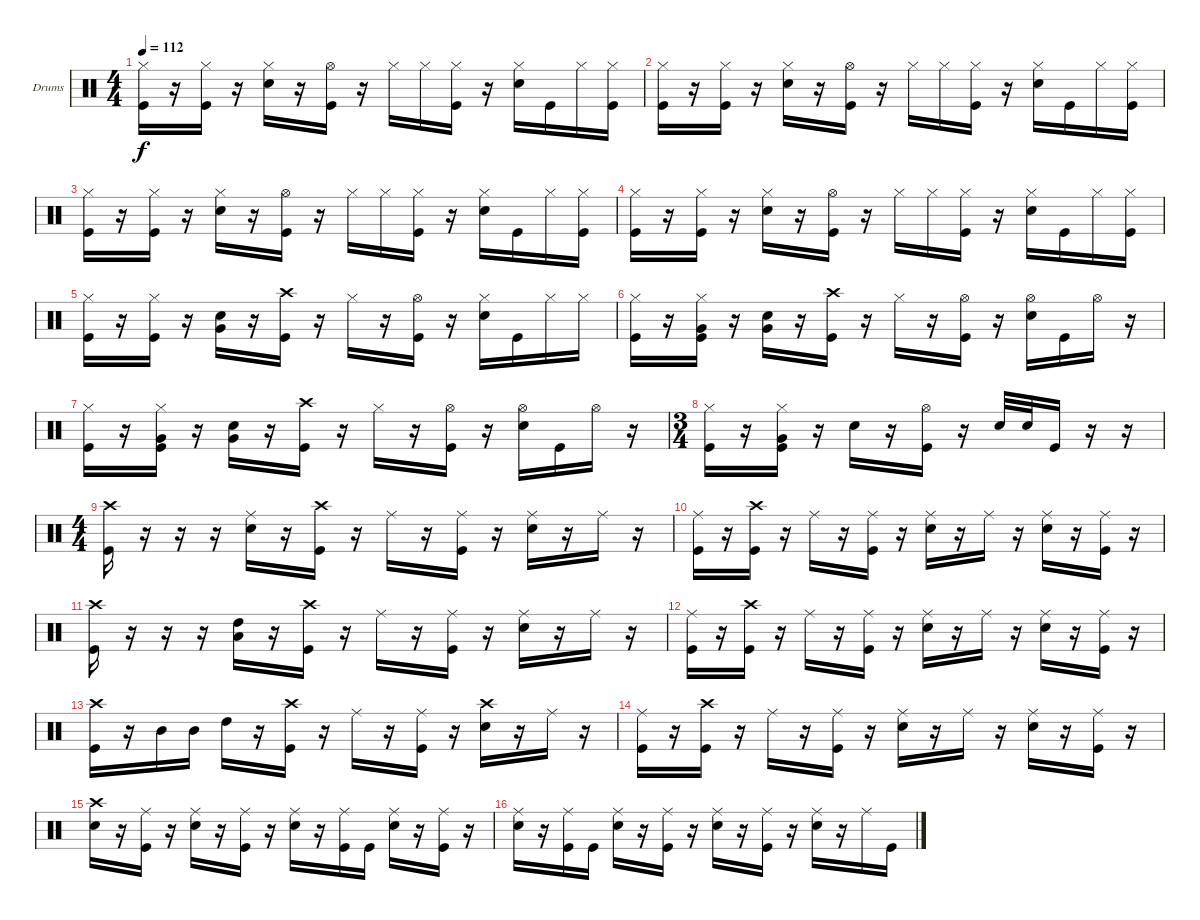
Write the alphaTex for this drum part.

\bracketExtendMode groupsimilarinstruments
\firstSystemTrackNameOrientation horizontal
\otherSystemsTrackNameOrientation horizontal
\track ("Drumkit" "Drums") {instrument percussion}
\staff {score}
\articulation defaults
\ts (4 4)
\tempo 112
\clef neutral
\ks c
("Hi-Hat (closed)" "Kick (hit)").16{dy f} r.16 ("Hi-Hat (closed)" "Kick (hit)").16 r.16 ("Hi-Hat (closed)" "Snare (hit) 2").16 r.16 ("Hi-Hat (open)" "Kick (hit)").16 r.16 "Hi-Hat (closed)".16 "Hi-Hat (closed)".16 ("Hi-Hat (closed)" "Kick (hit)").16 r.16 ("Hi-Hat (closed)" "Snare (hit) 2").16 "Kick (hit)".16 "Hi-Hat (closed)".16 ("Hi-Hat (closed)" "Kick (hit)").16 |
("Hi-Hat (closed)" "Kick (hit)").16 r.16 ("Hi-Hat (closed)" "Kick (hit)").16 r.16 ("Hi-Hat (closed)" "Snare (hit) 2").16 r.16 ("Hi-Hat (open)" "Kick (hit)").16 r.16 "Hi-Hat (closed)".16 "Hi-Hat (closed)".16 ("Hi-Hat (closed)" "Kick (hit)").16 r.16 ("Hi-Hat (closed)" "Snare (hit) 2").16 "Kick (hit)".16 "Hi-Hat (closed)".16 ("Hi-Hat (closed)" "Kick (hit)").16 |
("Hi-Hat (closed)" "Kick (hit)").16 r.16 ("Hi-Hat (closed)" "Kick (hit)").16 r.16 ("Hi-Hat (closed)" "Snare (hit) 2").16 r.16 ("Hi-Hat (open)" "Kick (hit)").16 r.16 "Hi-Hat (closed)".16 "Hi-Hat (closed)".16 ("Hi-Hat (closed)" "Kick (hit)").16 r.16 ("Hi-Hat (closed)" "Snare (hit) 2").16 "Kick (hit)".16 "Hi-Hat (closed)".16 ("Hi-Hat (closed)" "Kick (hit)").16 |
("Hi-Hat (closed)" "Kick (hit)").16 r.16 ("Hi-Hat (closed)" "Kick (hit)").16 r.16 ("Hi-Hat (closed)" "Snare (hit) 2").16 r.16 ("Hi-Hat (open)" "Kick (hit)").16 r.16 "Hi-Hat (closed)".16 "Hi-Hat (closed)".16 ("Hi-Hat (closed)" "Kick (hit)").16 r.16 ("Hi-Hat (closed)" "Snare (hit) 2").16 "Kick (hit)".16 "Hi-Hat (closed)".16 ("Hi-Hat (closed)" "Kick (hit)").16 |
("Hi-Hat (closed)" "Kick (hit)").16 r.16 ("Hi-Hat (closed)" "Kick (hit)").16 r.16 ("Snare (hit) 2" "Very Low Tom (hit)").16 r.16 ("Crash high (hit)" "Kick (hit)").16 r.16 "Hi-Hat (closed)".16 r.16 ("Hi-Hat (open)" "Kick (hit)").16 r.16 ("Hi-Hat (closed)" "Snare (hit) 2").16 "Kick (hit)".16 "Hi-Hat (closed)".16 "Hi-Hat (closed)".16 |
("Hi-Hat (closed)" "Kick (hit)").16 r.16 ("Hi-Hat (closed)" "Very Low Tom (hit)" "Kick (hit)").16 r.16 ("Snare (hit) 2" "Very Low Tom (hit)").16 r.16 ("Crash high (hit)" "Kick (hit)").16 r.16 "Hi-Hat (closed)".16 r.16 ("Hi-Hat (open)" "Kick (hit)").16 r.16 ("Hi-Hat (open)" "Snare (hit) 2").16 "Kick (hit)".16 "Hi-Hat (open)".16 r.16 |
("Hi-Hat (closed)" "Kick (hit)").16 r.16 ("Hi-Hat (closed)" "Very Low Tom (hit)" "Kick (hit)").16 r.16 ("Snare (hit) 2" "Very Low Tom (hit)").16 r.16 ("Crash high (hit)" "Kick (hit)").16 r.16 "Hi-Hat (closed)".16 r.16 ("Hi-Hat (open)" "Kick (hit)").16 r.16 ("Hi-Hat (open)" "Snare (hit) 2").16 "Kick (hit)".16 "Hi-Hat (open)".16 r.16 |
\ts (3 4)
\beaming (8 2 2 2 2)
("Hi-Hat (closed)" "Kick (hit)").16 r.16 ("Hi-Hat (closed)" "Very Low Tom (hit)" "Kick (hit)").16 r.16 "Snare (hit) 2".16 r.16 ("Hi-Hat (open)" "Kick (hit)").16 r.16 "Snare (hit) 2".32 "Snare (hit) 2".32 "Kick (hit)".16 r.16 r.16 |
\ts (4 4)
\beaming (8 2 2 2 2)
("Crash high (hit)" "Kick (hit)").16 r.16 r.16 r.16 ("Ride (middle)" "Snare (hit) 2").16 r.16 ("Crash high (hit)" "Kick (hit)").16 r.16 "Ride (middle)".16 r.16 ("Ride (middle)" "Kick (hit)").16 r.16 ("Ride (middle)" "Snare (hit) 2").16 r.16 "Ride (middle)".16 r.16 |
("Ride (middle)" "Kick (hit)").16 r.16 ("Crash high (hit)" "Kick (hit)").16 r.16 "Ride (middle)".16 r.16 ("Ride (middle)" "Kick (hit)").16 r.16 ("Ride (middle)" "Snare (hit) 2").16 r.16 "Ride (middle)".16 r.16 ("Ride (middle)" "Snare (hit) 2").16 r.16 ("Ride (middle)" "Kick (hit)").16 r.16 |
("Crash high (hit)" "Kick (hit)").16 r.16 r.16 r.16 ("High Tom (hit)" "Low Tom (hit)").16 r.16 ("Crash high (hit)" "Kick (hit)").16 r.16 "Ride (middle)".16 r.16 ("Ride (middle)" "Kick (hit)").16 r.16 ("Ride (middle)" "Snare (hit) 2").16 r.16 "Ride (middle)".16 r.16 |
("Ride (middle)" "Kick (hit)").16 r.16 ("Crash high (hit)" "Kick (hit)").16 r.16 "Ride (middle)".16 r.16 ("Ride (middle)" "Kick (hit)").16 r.16 ("Ride (middle)" "Snare (hit) 2").16 r.16 "Ride (middle)".16 r.16 ("Ride (middle)" "Snare (hit) 2").16 r.16 ("Ride (middle)" "Kick (hit)").16 r.16 |
("Crash high (hit)" "Kick (hit)").16 r.16 "Mid Tom (hit)".16 "Mid Tom (hit)".16 "High Tom (hit)".16 r.16 ("Crash high (hit)" "Kick (hit)").16 r.16 "Ride (middle)".16 r.16 ("Ride (middle)" "Kick (hit)").16 r.16 ("Crash high (hit)" "Snare (hit) 2").16 r.16 "Ride (middle)".16 r.16 |
("Ride (middle)" "Kick (hit)").16 r.16 ("Crash high (hit)" "Kick (hit)").16 r.16 "Ride (middle)".16 r.16 ("Ride (middle)" "Kick (hit)").16 r.16 ("Ride (middle)" "Snare (hit) 2").16 r.16 "Ride (middle)".16 r.16 ("Ride (middle)" "Snare (hit) 2").16 r.16 ("Ride (middle)" "Kick (hit)").16 r.16 |
("Crash high (hit)" "Snare (hit) 2").16 r.16 ("Ride (middle)" "Kick (hit)").16 r.16 ("Ride (middle)" "Snare (hit) 2").16 r.16 ("Ride (middle)" "Kick (hit)").16 r.16 ("Ride (middle)" "Snare (hit) 2").16 r.16 ("Ride (middle)" "Kick (hit)").16 "Kick (hit)".16 ("Ride (middle)" "Snare (hit) 2").16 r.16 ("Ride (middle)" "Kick (hit)").16 r.16 |
("Ride (middle)" "Snare (hit) 2").16 r.16 ("Ride (middle)" "Kick (hit)").16 "Kick (hit)".16 ("Ride (middle)" "Snare (hit) 2").16 r.16 ("Ride (middle)" "Kick (hit)").16 r.16 ("Ride (middle)" "Snare (hit) 2").16 r.16 ("Ride (middle)" "Kick (hit)").16 r.16 ("Ride (middle)" "Snare (hit) 2").16 r.16 "Ride (middle)".16 "Kick (hit)".16
